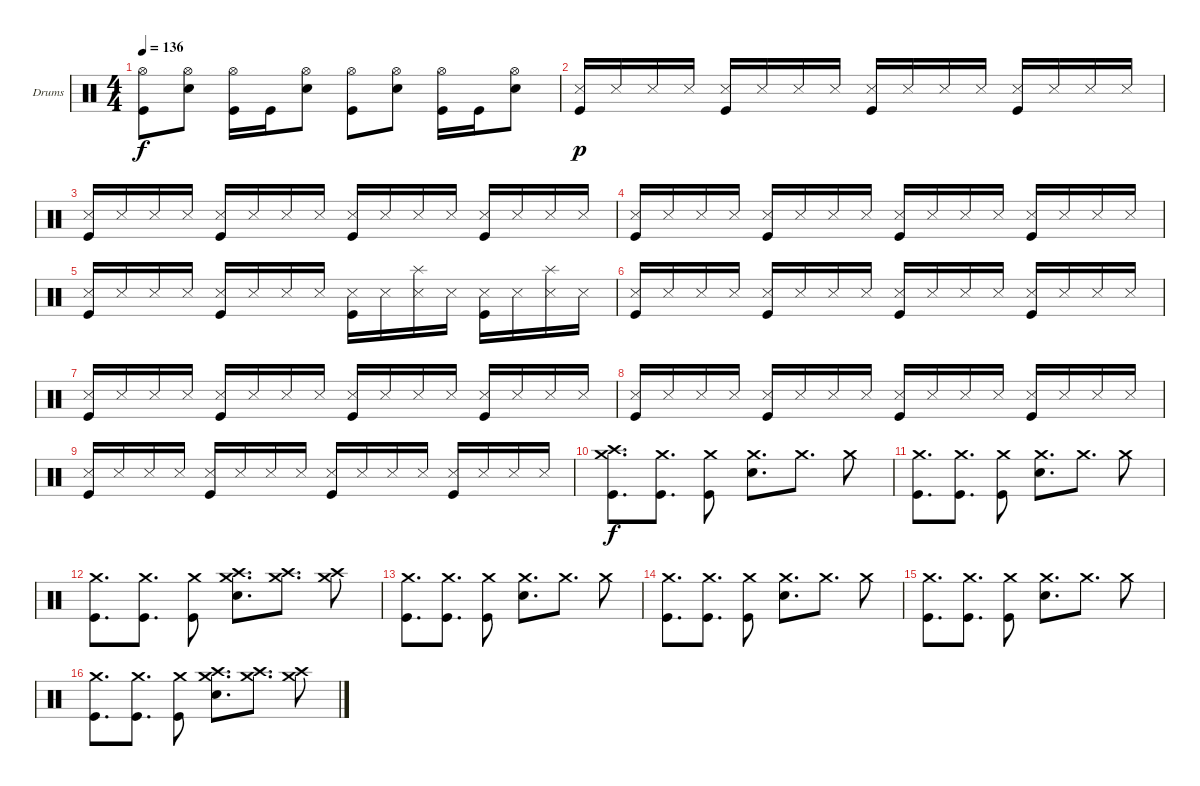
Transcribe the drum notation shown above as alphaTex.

\defaultSystemsLayout 4
\bracketExtendMode groupsimilarinstruments
\firstSystemTrackNameOrientation horizontal
\otherSystemsTrackNameOrientation horizontal
\track ("Lars Ulrich (Drums)" "Drums") {instrument percussion}
\staff {score}
\articulation defaults
\ts (4 4)
\tempo 136
\clef neutral
\ks c
("Hi-Hat (open)" "Kick (hit)").8{dy f} ("Hi-Hat (open)" "Snare (hit) 2").8 ("Hi-Hat (open)" "Kick (hit)").16 "Kick (hit)".16 ("Hi-Hat (open)" "Snare (hit) 2").8 ("Hi-Hat (open)" "Kick (hit)").8 ("Hi-Hat (open)" "Snare (hit) 2").8 ("Hi-Hat (open)" "Kick (hit)").16 "Kick (hit)".16 ("Hi-Hat (open)" "Snare (hit) 2").8 |
("Snare (side stick) 3" "Kick (hit)").16{dy p} "Snare (side stick) 3".16 "Snare (side stick) 3".16 "Snare (side stick) 3".16 ("Snare (side stick) 3" "Kick (hit)").16 "Snare (side stick) 3".16 "Snare (side stick) 3".16 "Snare (side stick) 3".16 ("Snare (side stick) 3" "Kick (hit)").16 "Snare (side stick) 3".16 "Snare (side stick) 3".16 "Snare (side stick) 3".16 ("Snare (side stick) 3" "Kick (hit)").16 "Snare (side stick) 3".16 "Snare (side stick) 3".16 "Snare (side stick) 3".16 |
("Snare (side stick) 3" "Kick (hit)").16 "Snare (side stick) 3".16 "Snare (side stick) 3".16 "Snare (side stick) 3".16 ("Snare (side stick) 3" "Kick (hit)").16 "Snare (side stick) 3".16 "Snare (side stick) 3".16 "Snare (side stick) 3".16 ("Snare (side stick) 3" "Kick (hit)").16 "Snare (side stick) 3".16 "Snare (side stick) 3".16 "Snare (side stick) 3".16 ("Snare (side stick) 3" "Kick (hit)").16 "Snare (side stick) 3".16 "Snare (side stick) 3".16 "Snare (side stick) 3".16 |
("Snare (side stick) 3" "Kick (hit)").16 "Snare (side stick) 3".16 "Snare (side stick) 3".16 "Snare (side stick) 3".16 ("Snare (side stick) 3" "Kick (hit)").16 "Snare (side stick) 3".16 "Snare (side stick) 3".16 "Snare (side stick) 3".16 ("Snare (side stick) 3" "Kick (hit)").16 "Snare (side stick) 3".16 "Snare (side stick) 3".16 "Snare (side stick) 3".16 ("Snare (side stick) 3" "Kick (hit)").16 "Snare (side stick) 3".16 "Snare (side stick) 3".16 "Snare (side stick) 3".16 |
("Snare (side stick) 3" "Kick (hit)").16 "Snare (side stick) 3".16 "Snare (side stick) 3".16 "Snare (side stick) 3".16 ("Snare (side stick) 3" "Kick (hit)").16 "Snare (side stick) 3".16 "Snare (side stick) 3".16 "Snare (side stick) 3".16 ("Snare (side stick) 3" "Kick (hit)").16 "Snare (side stick) 3".16 ("Splash (hit)" "Snare (side stick) 3").16 "Snare (side stick) 3".16 ("Snare (side stick) 3" "Kick (hit)").16 "Snare (side stick) 3".16 ("Splash (hit)" "Snare (side stick) 3").16 "Snare (side stick) 3".16 |
("Snare (side stick) 3" "Kick (hit)").16 "Snare (side stick) 3".16 "Snare (side stick) 3".16 "Snare (side stick) 3".16 ("Snare (side stick) 3" "Kick (hit)").16 "Snare (side stick) 3".16 "Snare (side stick) 3".16 "Snare (side stick) 3".16 ("Snare (side stick) 3" "Kick (hit)").16 "Snare (side stick) 3".16 "Snare (side stick) 3".16 "Snare (side stick) 3".16 ("Snare (side stick) 3" "Kick (hit)").16 "Snare (side stick) 3".16 "Snare (side stick) 3".16 "Snare (side stick) 3".16 |
("Snare (side stick) 3" "Kick (hit)").16 "Snare (side stick) 3".16 "Snare (side stick) 3".16 "Snare (side stick) 3".16 ("Snare (side stick) 3" "Kick (hit)").16 "Snare (side stick) 3".16 "Snare (side stick) 3".16 "Snare (side stick) 3".16 ("Snare (side stick) 3" "Kick (hit)").16 "Snare (side stick) 3".16 "Snare (side stick) 3".16 "Snare (side stick) 3".16 ("Snare (side stick) 3" "Kick (hit)").16 "Snare (side stick) 3".16 "Snare (side stick) 3".16 "Snare (side stick) 3".16 |
("Snare (side stick) 3" "Kick (hit)").16 "Snare (side stick) 3".16 "Snare (side stick) 3".16 "Snare (side stick) 3".16 ("Snare (side stick) 3" "Kick (hit)").16 "Snare (side stick) 3".16 "Snare (side stick) 3".16 "Snare (side stick) 3".16 ("Snare (side stick) 3" "Kick (hit)").16 "Snare (side stick) 3".16 "Snare (side stick) 3".16 "Snare (side stick) 3".16 ("Snare (side stick) 3" "Kick (hit)").16 "Snare (side stick) 3".16 "Snare (side stick) 3".16 "Snare (side stick) 3".16 |
("Snare (side stick) 3" "Kick (hit)").16 "Snare (side stick) 3".16 "Snare (side stick) 3".16 "Snare (side stick) 3".16 ("Snare (side stick) 3" "Kick (hit)").16 "Snare (side stick) 3".16 "Snare (side stick) 3".16 "Snare (side stick) 3".16 ("Snare (side stick) 3" "Kick (hit)").16 "Snare (side stick) 3".16 "Snare (side stick) 3".16 "Snare (side stick) 3".16 ("Snare (side stick) 3" "Kick (hit)").16 "Snare (side stick) 3".16 "Snare (side stick) 3".16 "Snare (side stick) 3".16 |
("Crash high (hit)" "Crash medium (hit)" "Kick (hit)").8{d dy f} ("Crash medium (hit)" "Kick (hit)").8{d} ("Crash medium (hit)" "Kick (hit)").8 ("Crash medium (hit)" "Snare (hit) 2").8{d} "Crash medium (hit)".8{d} "Crash medium (hit)".8 |
("Crash medium (hit)" "Kick (hit)").8{d} ("Crash medium (hit)" "Kick (hit)").8{d} ("Crash medium (hit)" "Kick (hit)").8 ("Crash medium (hit)" "Snare (hit) 2").8{d} "Crash medium (hit)".8{d} "Crash medium (hit)".8 |
("Crash medium (hit)" "Kick (hit)").8{d} ("Crash medium (hit)" "Kick (hit)").8{d} ("Crash medium (hit)" "Kick (hit)").8 ("Crash high (hit)" "Crash medium (hit)" "Snare (hit) 2").8{d} ("Crash high (hit)" "Crash medium (hit)").8{d} ("Crash high (hit)" "Crash medium (hit)").8 |
("Crash medium (hit)" "Kick (hit)").8{d} ("Crash medium (hit)" "Kick (hit)").8{d} ("Crash medium (hit)" "Kick (hit)").8 ("Crash medium (hit)" "Snare (hit) 2").8{d} "Crash medium (hit)".8{d} "Crash medium (hit)".8 |
("Crash medium (hit)" "Kick (hit)").8{d} ("Crash medium (hit)" "Kick (hit)").8{d} ("Crash medium (hit)" "Kick (hit)").8 ("Crash medium (hit)" "Snare (hit) 2").8{d} "Crash medium (hit)".8{d} "Crash medium (hit)".8 |
("Crash medium (hit)" "Kick (hit)").8{d} ("Crash medium (hit)" "Kick (hit)").8{d} ("Crash medium (hit)" "Kick (hit)").8 ("Crash medium (hit)" "Snare (hit) 2").8{d} "Crash medium (hit)".8{d} "Crash medium (hit)".8 |
("Crash medium (hit)" "Kick (hit)").8{d} ("Crash medium (hit)" "Kick (hit)").8{d} ("Crash medium (hit)" "Kick (hit)").8 ("Crash high (hit)" "Crash medium (hit)" "Snare (hit) 2").8{d} ("Crash high (hit)" "Crash medium (hit)").8{d} ("Crash high (hit)" "Crash medium (hit)").8
